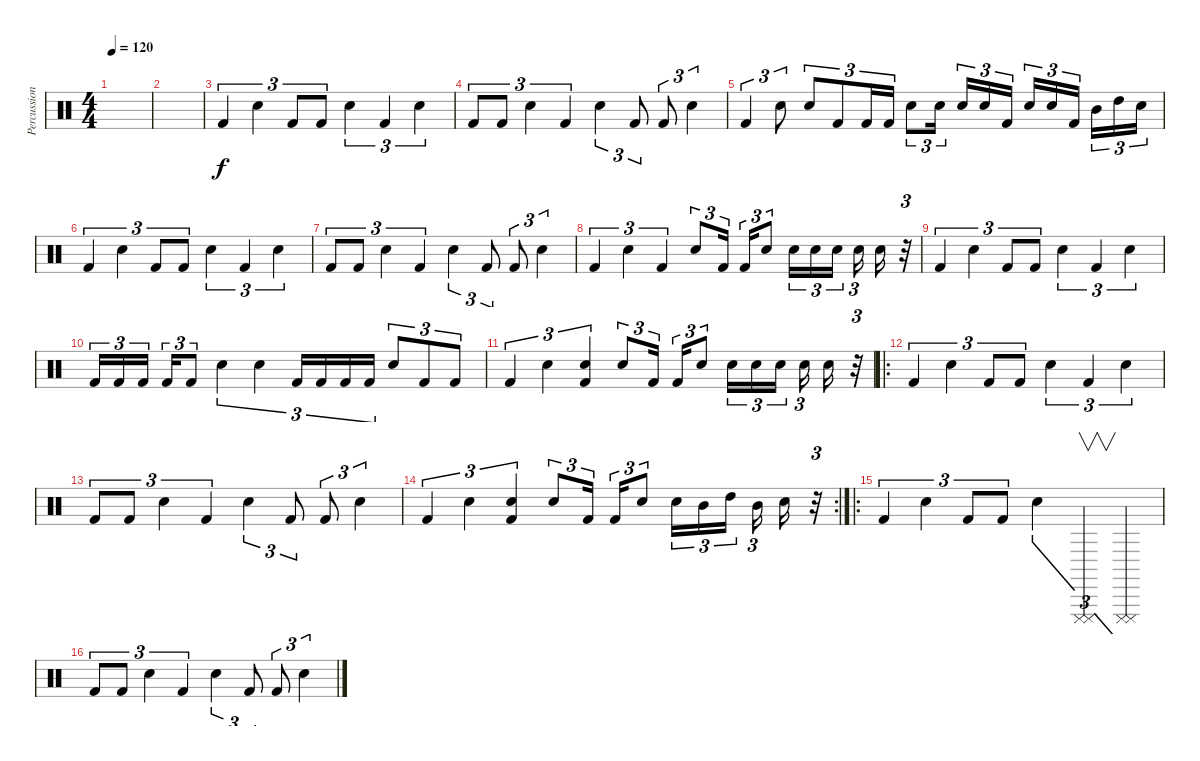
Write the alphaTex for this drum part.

\track ("Percussion" "Percussion") {instrument percussion}
\staff {score}
\articulation defaults
\ts (4 4)
\tempo 120
\clef neutral
\ks c
|
|
"Kick (hit) 2".4{tu (3 2)} "Electric Snare (hit)".4{tu (3 2)} "Kick (hit) 2".8{tu (3 2)} "Kick (hit) 2".8{tu (3 2)} "Electric Snare (hit)".4{tu (3 2)} "Kick (hit) 2".4{tu (3 2)} "Electric Snare (hit)".4{tu (3 2)} |
"Kick (hit) 2".8{tu (3 2)} "Kick (hit) 2".8{tu (3 2)} "Electric Snare (hit)".4{tu (3 2)} "Kick (hit) 2".4{tu (3 2)} "Electric Snare (hit)".4{tu (3 2)} "Kick (hit) 2".8{tu (3 2)} "Kick (hit) 2".8{tu (3 2)} "Electric Snare (hit)".4{tu (3 2)} |
"Kick (hit) 2".4{tu (3 2)} "Electric Snare (hit)".8{tu (3 2)} "Electric Snare (hit)".8{tu (3 2)} "Kick (hit) 2".8{tu (3 2)} "Kick (hit) 2".16{tu (3 2)} "Kick (hit) 2".16{tu (3 2)} "Electric Snare (hit)".8{tu (3 2)} "Electric Snare (hit)".16{tu (3 2)} "Electric Snare (hit)".16{tu (3 2)} "Electric Snare (hit)".16{tu (3 2)} "Kick (hit) 2".16{tu (3 2)} "Electric Snare (hit)".16{tu (3 2)} "Electric Snare (hit)".16{tu (3 2)} "Kick (hit) 2".16{tu (3 2)} "Mid Tom (hit)".16{tu (3 2)} "High Tom (hit)".16{tu (3 2)} "Electric Snare (hit)".16{tu (3 2)} |
"Kick (hit) 2".4{tu (3 2)} "Electric Snare (hit)".4{tu (3 2)} "Kick (hit) 2".8{tu (3 2)} "Kick (hit) 2".8{tu (3 2)} "Electric Snare (hit)".4{tu (3 2)} "Kick (hit) 2".4{tu (3 2)} "Electric Snare (hit)".4{tu (3 2)} |
"Kick (hit) 2".8{tu (3 2)} "Kick (hit) 2".8{tu (3 2)} "Electric Snare (hit)".4{tu (3 2)} "Kick (hit) 2".4{tu (3 2)} "Electric Snare (hit)".4{tu (3 2)} "Kick (hit) 2".8{tu (3 2)} "Kick (hit) 2".8{tu (3 2)} "Electric Snare (hit)".4{tu (3 2)} |
"Kick (hit) 2".4{tu (3 2)} "Electric Snare (hit)".4{tu (3 2)} "Kick (hit) 2".4{tu (3 2)} "Electric Snare (hit)".8{tu (3 2)} "Kick (hit) 2".16{tu (3 2)} "Kick (hit) 2".16{tu (3 2)} "Electric Snare (hit)".8{tu (3 2)} "Electric Snare (hit)".16{tu (3 2)} "Electric Snare (hit)".16{tu (3 2)} "Electric Snare (hit)".16{tu (3 2)} "Electric Snare (hit)".16{tu (3 2)} "Electric Snare (hit)".16 r.32{tu (3 2)} |
"Kick (hit) 2".4{tu (3 2)} "Electric Snare (hit)".4{tu (3 2)} "Kick (hit) 2".8{tu (3 2)} "Kick (hit) 2".8{tu (3 2)} "Electric Snare (hit)".4{tu (3 2)} "Kick (hit) 2".4{tu (3 2)} "Electric Snare (hit)".4{tu (3 2)} |
"Kick (hit) 2".16{tu (3 2)} "Kick (hit) 2".16{tu (3 2)} "Kick (hit) 2".16{tu (3 2)} "Kick (hit) 2".16{tu (3 2)} "Kick (hit) 2".8{tu (3 2)} "Electric Snare (hit)".4{tu (3 2)} "Electric Snare (hit)".4{tu (3 2)} "Kick (hit) 2".16{tu (3 2)} "Kick (hit) 2".16{tu (3 2)} "Kick (hit) 2".16{tu (3 2)} "Kick (hit) 2".16{tu (3 2)} "Electric Snare (hit)".8{tu (3 2)} "Kick (hit) 2".8{tu (3 2)} "Kick (hit) 2".8{tu (3 2)} |
"Kick (hit) 2".4{tu (3 2)} "Electric Snare (hit)".4{tu (3 2)} ("Electric Snare (hit)" "Kick (hit) 2").4{tu (3 2)} "Electric Snare (hit)".8{tu (3 2)} "Kick (hit) 2".16{tu (3 2)} "Kick (hit) 2".16{tu (3 2)} "Electric Snare (hit)".8{tu (3 2)} "Electric Snare (hit)".16{tu (3 2)} "Electric Snare (hit)".16{tu (3 2)} "Electric Snare (hit)".16{tu (3 2)} "Electric Snare (hit)".16{tu (3 2)} "Electric Snare (hit)".16 r.32{tu (3 2)} |
\ro "Kick (hit) 2".4{tu (3 2)} "Electric Snare (hit)".4{tu (3 2)} "Kick (hit) 2".8{tu (3 2)} "Kick (hit) 2".8{tu (3 2)} "Electric Snare (hit)".4{tu (3 2)} "Kick (hit) 2".4{tu (3 2)} "Electric Snare (hit)".4{tu (3 2)}
|
"Kick (hit) 2".8{tu (3 2)} "Kick (hit) 2".8{tu (3 2)} "Electric Snare (hit)".4{tu (3 2)} "Kick (hit) 2".4{tu (3 2)} "Electric Snare (hit)".4{tu (3 2)} "Kick (hit) 2".8{tu (3 2)} "Kick (hit) 2".8{tu (3 2)} "Electric Snare (hit)".4{tu (3 2)} |
\rc 2 "Kick (hit) 2".4{tu (3 2)} "Electric Snare (hit)".4{tu (3 2)}
("Electric Snare (hit)" "Kick (hit) 2").4{tu (3 2)} "Electric Snare (hit)".8{tu (3 2)} "Kick (hit) 2".16{tu (3 2)} "Kick (hit) 2".16{tu (3 2)} "Electric Snare (hit)".8{tu (3 2)} "Electric Snare (hit)".16{tu (3 2)} "Mid Tom (hit)".16{tu (3 2)} "High Tom (hit)".16{tu (3 2)} "Mid Tom (hit)".16{tu (3 2)} "Electric Snare (hit)".16 r.32{tu (3 2)} |
\ro "Kick (hit) 2".4{tu (3 2)} "Electric Snare (hit)".4{tu (3 2)} "Kick (hit) 2".8{tu (3 2)} "Kick (hit) 2".8{tu (3 2)} "Electric Snare (hit)".4{tu (3 2)}
("Cuica (mute)" "Cuica (mute)").4{v tu (3 2)} ("Cuica (mute)" "Cuica (mute)").4{tu (3 2)} |
"Kick (hit) 2".8{tu (3 2)} "Kick (hit) 2".8{tu (3 2)} "Electric Snare (hit)".4{tu (3 2)} "Kick (hit) 2".4{tu (3 2)} "Electric Snare (hit)".4{tu (3 2)} "Kick (hit) 2".8{tu (3 2)} "Kick (hit) 2".8{tu (3 2)} "Electric Snare (hit)".4{tu (3 2)}
